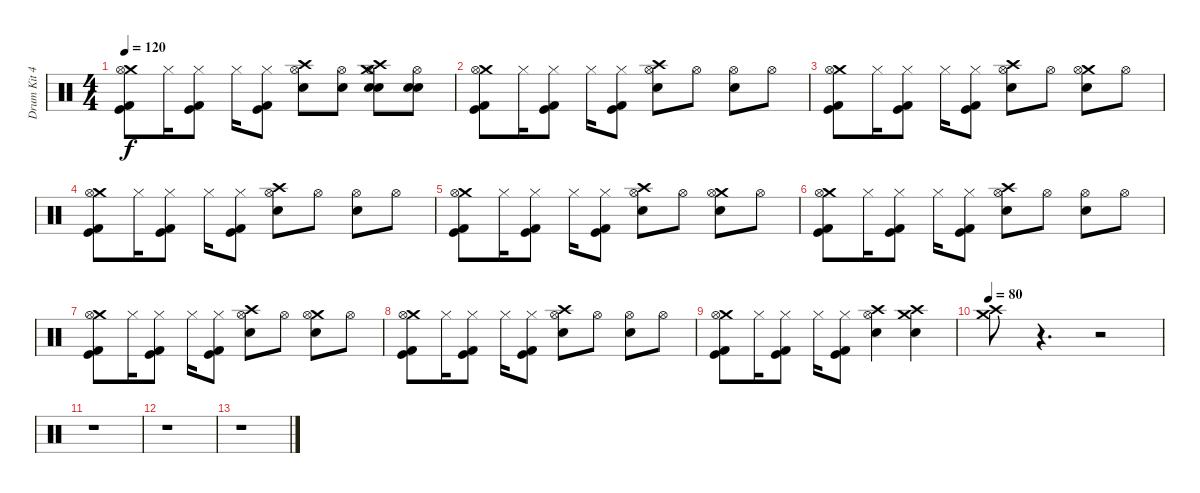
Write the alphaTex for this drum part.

\track ("Drum Kit 42" "Drum Kit 4") {instrument percussion}
\staff {score}
\articulation defaults
\ts (4 4)
\tempo 120
\clef neutral
\ks c
("Crash medium (hit)" "Hi-Hat (open)" "Kick (hit)" "Kick (hit) 2").8{dy f} "Hi-Hat (closed)".16 ("Hi-Hat (closed)" "Kick (hit)" "Kick (hit) 2").8 "Hi-Hat (closed)".16 ("Hi-Hat (closed)" "Kick (hit)" "Kick (hit) 2").8 ("Crash high (hit)" "Hi-Hat (open)" "Snare (hit) 2").8 ("Hi-Hat (open)" "Snare (hit) 2").8 ("Crash medium (hit)" "Crash high (hit)" "Hi-Hat (open)" "Snare (hit) 2" "Snare (hit) 2").8 ("Hi-Hat (open)" "Snare (hit) 2" "Snare (hit) 2").8 |
\section ("" "")
("Crash medium (hit)" "Hi-Hat (open)" "Kick (hit)" "Kick (hit) 2").8 "Hi-Hat (closed)".16 ("Hi-Hat (closed)" "Kick (hit)" "Kick (hit) 2").8 "Hi-Hat (closed)".16 ("Hi-Hat (closed)" "Kick (hit)" "Kick (hit) 2").8 ("Crash high (hit)" "Hi-Hat (open)" "Snare (hit) 2").8 "Hi-Hat (open)".8 ("Hi-Hat (open)" "Snare (hit) 2").8 "Hi-Hat (open)".8 |
("Crash medium (hit)" "Hi-Hat (open)" "Kick (hit)" "Kick (hit) 2").8 "Hi-Hat (closed)".16 ("Hi-Hat (closed)" "Kick (hit)" "Kick (hit) 2").8 "Hi-Hat (closed)".16 ("Hi-Hat (closed)" "Kick (hit)" "Kick (hit) 2").8 ("Crash high (hit)" "Hi-Hat (open)" "Snare (hit) 2").8 "Hi-Hat (open)".8 ("Crash medium (hit)" "Hi-Hat (open)" "Snare (hit) 2").8 "Hi-Hat (open)".8 |
("Crash medium (hit)" "Hi-Hat (open)" "Kick (hit)" "Kick (hit) 2").8 "Hi-Hat (closed)".16 ("Hi-Hat (closed)" "Kick (hit)" "Kick (hit) 2").8 "Hi-Hat (closed)".16 ("Hi-Hat (closed)" "Kick (hit)" "Kick (hit) 2").8 ("Crash high (hit)" "Hi-Hat (open)" "Snare (hit) 2").8 "Hi-Hat (open)".8 ("Hi-Hat (open)" "Snare (hit) 2").8 "Hi-Hat (open)".8 |
("Crash medium (hit)" "Hi-Hat (open)" "Kick (hit)" "Kick (hit) 2").8 "Hi-Hat (closed)".16 ("Hi-Hat (closed)" "Kick (hit)" "Kick (hit) 2").8 "Hi-Hat (closed)".16 ("Hi-Hat (closed)" "Kick (hit)" "Kick (hit) 2").8 ("Crash high (hit)" "Hi-Hat (open)" "Snare (hit) 2").8 "Hi-Hat (open)".8 ("Crash medium (hit)" "Hi-Hat (open)" "Snare (hit) 2").8 "Hi-Hat (open)".8 |
("Crash medium (hit)" "Hi-Hat (open)" "Kick (hit)" "Kick (hit) 2").8 "Hi-Hat (closed)".16 ("Hi-Hat (closed)" "Kick (hit)" "Kick (hit) 2").8 "Hi-Hat (closed)".16 ("Hi-Hat (closed)" "Kick (hit)" "Kick (hit) 2").8 ("Crash high (hit)" "Hi-Hat (open)" "Snare (hit) 2").8 "Hi-Hat (open)".8 ("Hi-Hat (open)" "Snare (hit) 2").8 "Hi-Hat (open)".8 |
("Crash medium (hit)" "Hi-Hat (open)" "Kick (hit)" "Kick (hit) 2").8 "Hi-Hat (closed)".16 ("Hi-Hat (closed)" "Kick (hit)" "Kick (hit) 2").8 "Hi-Hat (closed)".16 ("Hi-Hat (closed)" "Kick (hit)" "Kick (hit) 2").8 ("Crash high (hit)" "Hi-Hat (open)" "Snare (hit) 2").8 "Hi-Hat (open)".8 ("Crash medium (hit)" "Hi-Hat (open)" "Snare (hit) 2").8 "Hi-Hat (open)".8 |
("Crash medium (hit)" "Hi-Hat (open)" "Kick (hit)" "Kick (hit) 2").8 "Hi-Hat (closed)".16 ("Hi-Hat (closed)" "Kick (hit)" "Kick (hit) 2").8 "Hi-Hat (closed)".16 ("Hi-Hat (closed)" "Kick (hit)" "Kick (hit) 2").8 ("Crash high (hit)" "Hi-Hat (open)" "Snare (hit) 2").8 "Hi-Hat (open)".8 ("Hi-Hat (open)" "Snare (hit) 2").8 "Hi-Hat (open)".8 |
("Crash medium (hit)" "Hi-Hat (open)" "Kick (hit)" "Kick (hit) 2").8 "Hi-Hat (closed)".16 ("Hi-Hat (closed)" "Kick (hit)" "Kick (hit) 2").8 "Hi-Hat (closed)".16 ("Hi-Hat (closed)" "Kick (hit)" "Kick (hit) 2").8 ("Crash high (hit)" "Hi-Hat (open)" "Snare (hit) 2").4 ("Crash medium (hit)" "Crash high (hit)" "Snare (hit) 2").4 |
\tempo 80
("Crash medium (hit)" "Crash high (hit)").8 r.4{d} r.2 |
r.1 |
r.1 |
r.1
